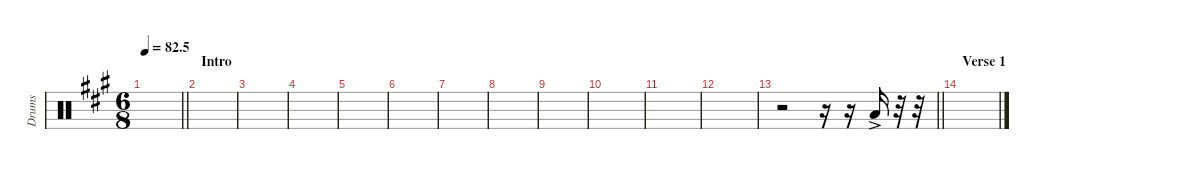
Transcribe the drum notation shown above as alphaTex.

\defaultSystemsLayout 4
\hideDynamics
\bracketExtendMode nobrackets
\otherSystemsTrackNameOrientation horizontal
\track ("Tom 03" "Drums") {instrument percussion}
\staff {score}
\articulation defaults
\ts (6 8)
\tempo
82.5
\accidentals auto
\clef neutral
\ottava regular
\simile none
\scale
0.474178
\barLineRight lightlight
\ks a
|
\section ("" "Intro")
\scale
0.262911 |
\scale
0.262911 |
\scale
0.333333 |
\scale
0.333333 |
\scale
0.333333 |
\scale
0.333333 |
\scale
0.333333 |
\scale
0.333333 |
\scale
0.333333 |
\scale
0.333333 |
\scale
0.333333 |
\scale
0.333333
\barLineRight lightlight
r.2 r.16 r.16 "Low Tom (hit)"{ac acc forcenatural}.16 r.32 r.32 |
\section ("" "Verse 1")
\scale
0.333333 |
\scale
0.333333 |
\scale
0.333333
